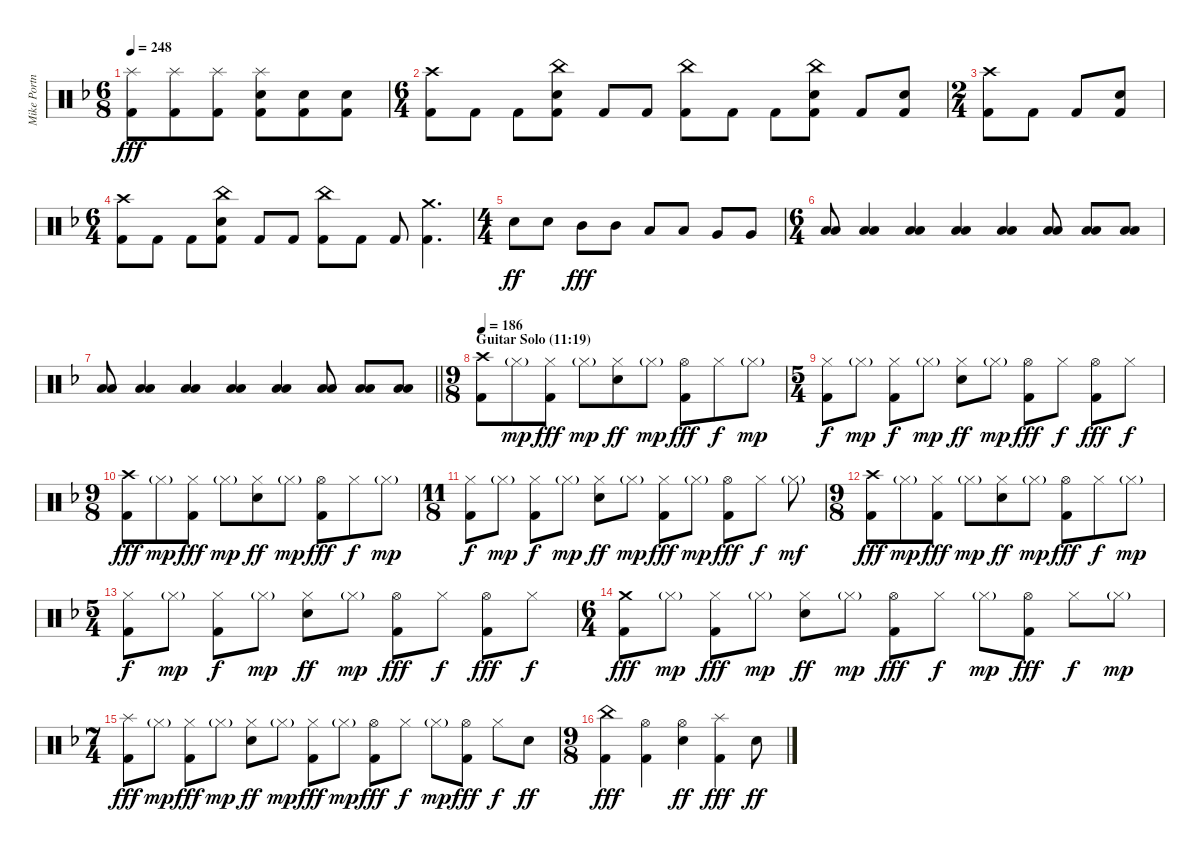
\track ("Mike Portnoy Drums" "Mike Portn") {instrument percussion}
\staff {score}
\articulation defaults
\ts (6 8)
\tempo 248
\clef neutral
\ks dminor
("Splash (hit)" "Kick (hit) 2").8{dy fff} ("Splash (hit)" "Kick (hit) 2").8 ("Splash (hit)" "Kick (hit) 2").8 ("Splash (hit)" "Electric Snare (hit)" "Kick (hit) 2").8 ("Electric Snare (hit)" "Kick (hit) 2").8 ("Electric Snare (hit)" "Kick (hit) 2").8 |
\ts (6 4)
("Crash high (hit)" "Kick (hit) 2").8 "Kick (hit) 2".8 "Kick (hit) 2".8 ("China (hit)" "Electric Snare (hit)" "Kick (hit) 2").8 "Kick (hit) 2".8 "Kick (hit) 2".8 ("China (hit)" "Kick (hit) 2").8 "Kick (hit) 2".8 "Kick (hit) 2".8 ("China (hit)" "Electric Snare (hit)" "Kick (hit) 2").8 "Kick (hit) 2".8 ("Electric Snare (hit)" "Kick (hit) 2").8 |
\ts (2 4)
("Crash high (hit)" "Kick (hit) 2").8 "Kick (hit) 2".8 "Kick (hit) 2".8 ("Electric Snare (hit)" "Kick (hit) 2").8 |
\ts (6 4)
("Crash high (hit)" "Kick (hit) 2").8 "Kick (hit) 2".8 "Kick (hit) 2".8 ("China (hit)" "Electric Snare (hit)" "Kick (hit) 2").8 "Kick (hit) 2".8 "Kick (hit) 2".8 ("China (hit)" "Kick (hit) 2").8 "Kick (hit) 2".8 "Kick (hit) 2".8 ("Crash medium (hit)" "Kick (hit) 2").4{d} |
\ts (4 4)
"Electric Snare (hit)".8{dy ff} "Electric Snare (hit)".8 "Mid Tom (hit)".8{dy fff} "Mid Tom (hit)".8 "Low Tom (hit)".8 "Low Tom (hit)".8 "Very Low Tom (hit)".8 "Very Low Tom (hit)".8 |
\ts (6 4)
("Low Floor Tom (hit)" "Low Floor Tom (hit)").8 ("Low Floor Tom (hit)" "Low Floor Tom (hit)").4 ("Low Floor Tom (hit)" "Low Floor Tom (hit)").4 ("Low Floor Tom (hit)" "Low Floor Tom (hit)").4 ("Low Floor Tom (hit)" "Low Floor Tom (hit)").4 ("Low Floor Tom (hit)" "Low Floor Tom (hit)").8 ("Low Floor Tom (hit)" "Low Floor Tom (hit)").8 ("Low Floor Tom (hit)" "Low Floor Tom (hit)").8 |
\barLineRight lightlight
("Low Floor Tom (hit)" "Low Floor Tom (hit)").8 ("Low Floor Tom (hit)" "Low Floor Tom (hit)").4 ("Low Floor Tom (hit)" "Low Floor Tom (hit)").4 ("Low Floor Tom (hit)" "Low Floor Tom (hit)").4 ("Low Floor Tom (hit)" "Low Floor Tom (hit)").4 ("Low Floor Tom (hit)" "Low Floor Tom (hit)").8 ("Low Floor Tom (hit)" "Low Floor Tom (hit)").8 ("Low Floor Tom (hit)" "Low Floor Tom (hit)").8 |
\ts (9 8)
\section ("" "Guitar Solo (11:19)")
\tempo 186
("Crash high (hit)" "Kick (hit) 2").8 "Hi-Hat (closed)"{g}.8{dy mp} ("Hi-Hat (closed)" "Kick (hit) 2").8{dy fff} "Hi-Hat (closed)"{g}.8{dy mp} ("Hi-Hat (closed)" "Electric Snare (hit)").8{dy ff} "Hi-Hat (closed)"{g}.8{dy mp} ("Hi-Hat (open)" "Kick (hit) 2").8{dy fff} "Hi-Hat (closed)".8{dy f} "Hi-Hat (closed)"{g}.8{dy mp} |
\ts (5 4)
("Hi-Hat (closed)" "Kick (hit) 2").8{dy f} "Hi-Hat (closed)"{g}.8{dy mp} ("Hi-Hat (closed)" "Kick (hit) 2").8{dy f} "Hi-Hat (closed)"{g}.8{dy mp} ("Hi-Hat (closed)" "Electric Snare (hit)").8{dy ff} "Hi-Hat (closed)"{g}.8{dy mp} ("Hi-Hat (open)" "Kick (hit) 2").8{dy fff} "Hi-Hat (closed)".8{dy f} ("Hi-Hat (open)" "Kick (hit) 2").8{dy fff} "Hi-Hat (closed)".8{dy f} |
\ts (9 8)
("Crash high (hit)" "Kick (hit) 2").8{dy fff} "Hi-Hat (closed)"{g}.8{dy mp} ("Hi-Hat (closed)" "Kick (hit) 2").8{dy fff} "Hi-Hat (closed)"{g}.8{dy mp} ("Hi-Hat (closed)" "Electric Snare (hit)").8{dy ff} "Hi-Hat (closed)"{g}.8{dy mp} ("Hi-Hat (open)" "Kick (hit) 2").8{dy fff} "Hi-Hat (closed)".8{dy f} "Hi-Hat (closed)"{g}.8{dy mp} |
\ts (11 8)
("Hi-Hat (closed)" "Kick (hit) 2").8{dy f} "Hi-Hat (closed)"{g}.8{dy mp} ("Hi-Hat (closed)" "Kick (hit) 2").8{dy f} "Hi-Hat (closed)"{g}.8{dy mp} ("Hi-Hat (closed)" "Electric Snare (hit)").8{dy ff} "Hi-Hat (closed)"{g}.8{dy mp} ("Hi-Hat (closed)" "Kick (hit) 2").8{dy fff} "Hi-Hat (closed)"{g}.8{dy mp} ("Hi-Hat (open)" "Kick (hit) 2").8{dy fff} "Hi-Hat (closed)".8{dy f} "Hi-Hat (closed)"{g}.8{dy mf} |
\ts (9 8)
("Crash high (hit)" "Kick (hit) 2").8{dy fff} "Hi-Hat (closed)"{g}.8{dy mp} ("Hi-Hat (closed)" "Kick (hit) 2").8{dy fff} "Hi-Hat (closed)"{g}.8{dy mp} ("Hi-Hat (closed)" "Electric Snare (hit)").8{dy ff} "Hi-Hat (closed)"{g}.8{dy mp} ("Hi-Hat (open)" "Kick (hit) 2").8{dy fff} "Hi-Hat (closed)".8{dy f} "Hi-Hat (closed)"{g}.8{dy mp} |
\ts (5 4)
("Hi-Hat (closed)" "Kick (hit) 2").8{dy f} "Hi-Hat (closed)"{g}.8{dy mp} ("Hi-Hat (closed)" "Kick (hit) 2").8{dy f} "Hi-Hat (closed)"{g}.8{dy mp} ("Hi-Hat (closed)" "Electric Snare (hit)").8{dy ff} "Hi-Hat (closed)"{g}.8{dy mp} ("Hi-Hat (open)" "Kick (hit) 2").8{dy fff} "Hi-Hat (closed)".8{dy f} ("Hi-Hat (open)" "Kick (hit) 2").8{dy fff} "Hi-Hat (closed)".8{dy f} |
\ts (6 4)
("Crash medium (hit)" "Kick (hit) 2").8{dy fff} "Hi-Hat (closed)"{g}.8{dy mp} ("Hi-Hat (closed)" "Kick (hit) 2").8{dy fff} "Hi-Hat (closed)"{g}.8{dy mp} ("Hi-Hat (closed)" "Electric Snare (hit)").8{dy ff} "Hi-Hat (closed)"{g}.8{dy mp} ("Hi-Hat (open)" "Kick (hit) 2").8{dy fff} "Hi-Hat (closed)".8{dy f} "Hi-Hat (closed)"{g}.8{dy mp} ("Hi-Hat (open)" "Kick (hit) 2").8{dy fff} "Hi-Hat (closed)".8{dy f} "Hi-Hat (closed)"{g}.8{dy mp} |
\ts (7 4)
("Splash (hit)" "Kick (hit) 2").8{dy fff} "Hi-Hat (closed)"{g}.8{dy mp} ("Hi-Hat (closed)" "Kick (hit) 2").8{dy fff} "Hi-Hat (closed)"{g}.8{dy mp} ("Hi-Hat (closed)" "Electric Snare (hit)").8{dy ff} "Hi-Hat (closed)"{g}.8{dy mp} ("Hi-Hat (closed)" "Kick (hit) 2").8{dy fff} "Hi-Hat (closed)"{g}.8{dy mp} ("Hi-Hat (open)" "Kick (hit) 2").8{dy fff} "Hi-Hat (closed)".8{dy f} "Hi-Hat (closed)"{g}.8{dy mp} ("Hi-Hat (open)" "Kick (hit) 2").8{dy fff} "Hi-Hat (closed)".8{dy f} "Electric Snare (hit)".8{dy ff} |
\ts (9 8)
("China (hit)" "Kick (hit) 2").4{dy fff} ("Hi-Hat (open)" "Kick (hit) 2").4 ("Hi-Hat (open)" "Electric Snare (hit)").4{dy ff} ("Splash (hit)" "Kick (hit) 2").4{dy fff} "Electric Snare (hit)".8{dy ff}
